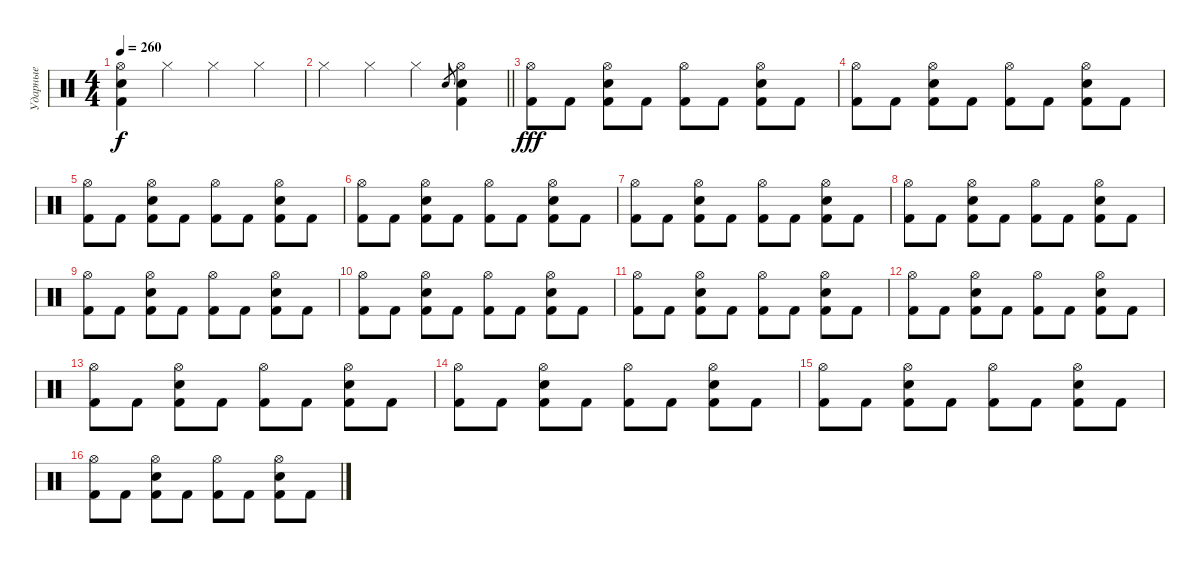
\track ("Ударные" "Ударные") {instrument percussion}
\staff {score}
\articulation defaults
\ts (4 4)
\tempo 260
\clef neutral
\ks c
("Kick (hit) 2" "Snare (hit) 2" "Hi-Hat (open)").4{dy f} "Hi-Hat (closed)".4 "Hi-Hat (closed)".4 "Hi-Hat (closed)".4 |
\barLineRight lightlight "Hi-Hat (closed)".4 "Hi-Hat (closed)".4 "Hi-Hat (closed)".4 "Snare (hit) 2".8{gr}
("Kick (hit) 2" "Snare (hit) 2" "Hi-Hat (open)").4 |
("Kick (hit) 2" "Hi-Hat (open)").8{dy fff} "Kick (hit) 2".8 ("Kick (hit) 2" "Snare (hit) 2" "Hi-Hat (open)").8 "Kick (hit) 2".8 ("Kick (hit) 2" "Hi-Hat (open)").8 "Kick (hit) 2".8 ("Kick (hit) 2" "Snare (hit) 2" "Hi-Hat (open)").8 "Kick (hit) 2".8 |
("Kick (hit) 2" "Hi-Hat (open)").8 "Kick (hit) 2".8 ("Kick (hit) 2" "Snare (hit) 2" "Hi-Hat (open)").8 "Kick (hit) 2".8 ("Kick (hit) 2" "Hi-Hat (open)").8 "Kick (hit) 2".8 ("Kick (hit) 2" "Snare (hit) 2" "Hi-Hat (open)").8 "Kick (hit) 2".8 |
("Kick (hit) 2" "Hi-Hat (open)").8 "Kick (hit) 2".8 ("Kick (hit) 2" "Snare (hit) 2" "Hi-Hat (open)").8 "Kick (hit) 2".8 ("Kick (hit) 2" "Hi-Hat (open)").8 "Kick (hit) 2".8 ("Kick (hit) 2" "Snare (hit) 2" "Hi-Hat (open)").8 "Kick (hit) 2".8 |
("Kick (hit) 2" "Hi-Hat (open)").8 "Kick (hit) 2".8 ("Kick (hit) 2" "Snare (hit) 2" "Hi-Hat (open)").8 "Kick (hit) 2".8 ("Kick (hit) 2" "Hi-Hat (open)").8 "Kick (hit) 2".8 ("Kick (hit) 2" "Snare (hit) 2" "Hi-Hat (open)").8 "Kick (hit) 2".8 |
("Kick (hit) 2" "Hi-Hat (open)").8 "Kick (hit) 2".8 ("Kick (hit) 2" "Snare (hit) 2" "Hi-Hat (open)").8 "Kick (hit) 2".8 ("Kick (hit) 2" "Hi-Hat (open)").8 "Kick (hit) 2".8 ("Kick (hit) 2" "Snare (hit) 2" "Hi-Hat (open)").8 "Kick (hit) 2".8 |
("Kick (hit) 2" "Hi-Hat (open)").8 "Kick (hit) 2".8 ("Kick (hit) 2" "Snare (hit) 2" "Hi-Hat (open)").8 "Kick (hit) 2".8 ("Kick (hit) 2" "Hi-Hat (open)").8 "Kick (hit) 2".8 ("Kick (hit) 2" "Snare (hit) 2" "Hi-Hat (open)").8 "Kick (hit) 2".8 |
("Kick (hit) 2" "Hi-Hat (open)").8 "Kick (hit) 2".8 ("Kick (hit) 2" "Snare (hit) 2" "Hi-Hat (open)").8 "Kick (hit) 2".8 ("Kick (hit) 2" "Hi-Hat (open)").8 "Kick (hit) 2".8 ("Kick (hit) 2" "Snare (hit) 2" "Hi-Hat (open)").8 "Kick (hit) 2".8 |
("Kick (hit) 2" "Hi-Hat (open)").8 "Kick (hit) 2".8 ("Kick (hit) 2" "Snare (hit) 2" "Hi-Hat (open)").8 "Kick (hit) 2".8 ("Kick (hit) 2" "Hi-Hat (open)").8 "Kick (hit) 2".8 ("Kick (hit) 2" "Snare (hit) 2" "Hi-Hat (open)").8 "Kick (hit) 2".8 |
("Kick (hit) 2" "Hi-Hat (open)").8 "Kick (hit) 2".8 ("Kick (hit) 2" "Snare (hit) 2" "Hi-Hat (open)").8 "Kick (hit) 2".8 ("Kick (hit) 2" "Hi-Hat (open)").8 "Kick (hit) 2".8 ("Kick (hit) 2" "Snare (hit) 2" "Hi-Hat (open)").8 "Kick (hit) 2".8 |
("Kick (hit) 2" "Hi-Hat (open)").8 "Kick (hit) 2".8 ("Kick (hit) 2" "Snare (hit) 2" "Hi-Hat (open)").8 "Kick (hit) 2".8 ("Kick (hit) 2" "Hi-Hat (open)").8 "Kick (hit) 2".8 ("Kick (hit) 2" "Snare (hit) 2" "Hi-Hat (open)").8 "Kick (hit) 2".8 |
("Kick (hit) 2" "Hi-Hat (open)").8 "Kick (hit) 2".8 ("Kick (hit) 2" "Snare (hit) 2" "Hi-Hat (open)").8 "Kick (hit) 2".8 ("Kick (hit) 2" "Hi-Hat (open)").8 "Kick (hit) 2".8 ("Kick (hit) 2" "Snare (hit) 2" "Hi-Hat (open)").8 "Kick (hit) 2".8 |
("Kick (hit) 2" "Hi-Hat (open)").8 "Kick (hit) 2".8 ("Kick (hit) 2" "Snare (hit) 2" "Hi-Hat (open)").8 "Kick (hit) 2".8 ("Kick (hit) 2" "Hi-Hat (open)").8 "Kick (hit) 2".8 ("Kick (hit) 2" "Snare (hit) 2" "Hi-Hat (open)").8 "Kick (hit) 2".8 |
("Kick (hit) 2" "Hi-Hat (open)").8 "Kick (hit) 2".8 ("Kick (hit) 2" "Snare (hit) 2" "Hi-Hat (open)").8 "Kick (hit) 2".8 ("Kick (hit) 2" "Hi-Hat (open)").8 "Kick (hit) 2".8 ("Kick (hit) 2" "Snare (hit) 2" "Hi-Hat (open)").8 "Kick (hit) 2".8 |
("Kick (hit) 2" "Hi-Hat (open)").8 "Kick (hit) 2".8 ("Kick (hit) 2" "Snare (hit) 2" "Hi-Hat (open)").8 "Kick (hit) 2".8 ("Kick (hit) 2" "Hi-Hat (open)").8 "Kick (hit) 2".8 ("Kick (hit) 2" "Snare (hit) 2" "Hi-Hat (open)").8 "Kick (hit) 2".8
